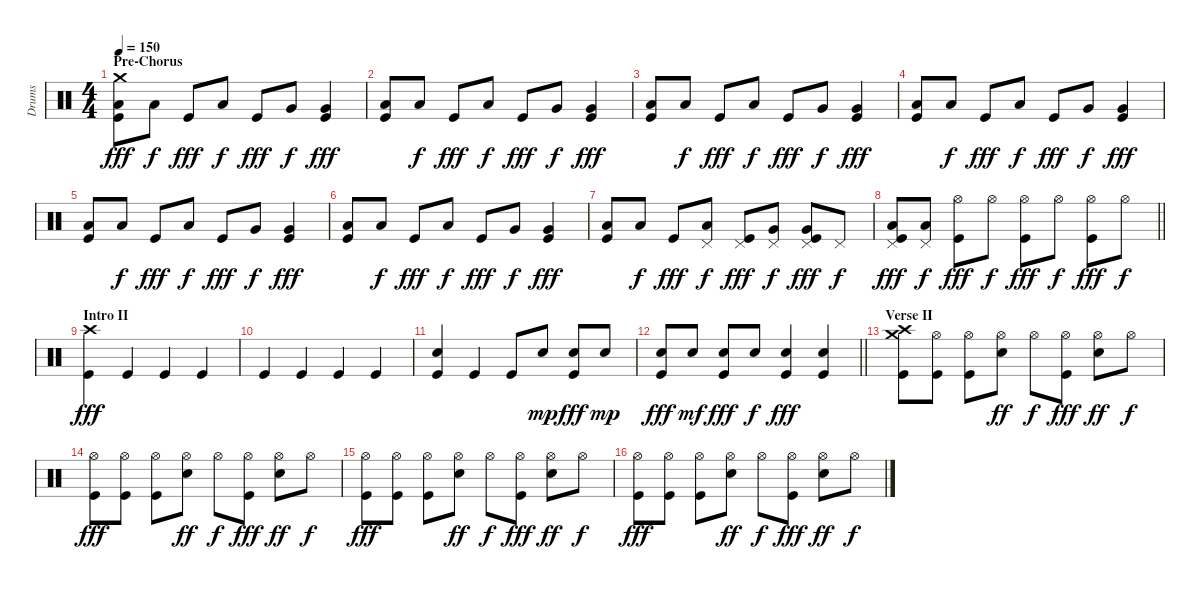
\track ("Drums" "Drums") {instrument percussion}
\staff {score}
\articulation defaults
\ts (4 4)
\section ("" "Pre-Chorus")
\tempo 150
\clef neutral
\ks c
("Crash medium (hit)" "Low Tom (hit)" "Kick (hit)").8{dy fff} "Low Tom (hit)".8{dy f} "Kick (hit)".8{dy fff} "Low Tom (hit)".8{dy f} "Kick (hit)".8{dy fff} "Very Low Tom (hit)".8{dy f} ("Very Low Tom (hit)" "Kick (hit)").4{dy fff} |
("Low Tom (hit)" "Kick (hit)").8 "Low Tom (hit)".8{dy f} "Kick (hit)".8{dy fff} "Low Tom (hit)".8{dy f} "Kick (hit)".8{dy fff} "Very Low Tom (hit)".8{dy f} ("Very Low Tom (hit)" "Kick (hit)").4{dy fff} |
("Low Tom (hit)" "Kick (hit)").8 "Low Tom (hit)".8{dy f} "Kick (hit)".8{dy fff} "Low Tom (hit)".8{dy f} "Kick (hit)".8{dy fff} "Very Low Tom (hit)".8{dy f} ("Very Low Tom (hit)" "Kick (hit)").4{dy fff} |
("Low Tom (hit)" "Kick (hit)").8 "Low Tom (hit)".8{dy f} "Kick (hit)".8{dy fff} "Low Tom (hit)".8{dy f} "Kick (hit)".8{dy fff} "Very Low Tom (hit)".8{dy f} ("Very Low Tom (hit)" "Kick (hit)").4{dy fff} |
("Low Tom (hit)" "Kick (hit)").8 "Low Tom (hit)".8{dy f} "Kick (hit)".8{dy fff} "Low Tom (hit)".8{dy f} "Kick (hit)".8{dy fff} "Very Low Tom (hit)".8{dy f} ("Very Low Tom (hit)" "Kick (hit)").4{dy fff} |
("Low Tom (hit)" "Kick (hit)").8 "Low Tom (hit)".8{dy f} "Kick (hit)".8{dy fff} "Low Tom (hit)".8{dy f} "Kick (hit)".8{dy fff} "Very Low Tom (hit)".8{dy f} ("Very Low Tom (hit)" "Kick (hit)").4{dy fff} |
("Low Tom (hit)" "Kick (hit)").8 "Low Tom (hit)".8{dy f} "Kick (hit)".8{dy fff} ("Pedal Hi-Hat (hit)" "Low Tom (hit)").8{dy f} ("Pedal Hi-Hat (hit)" "Kick (hit)").8{dy fff} ("Pedal Hi-Hat (hit)" "Very Low Tom (hit)").8{dy f} ("Pedal Hi-Hat (hit)" "Very Low Tom (hit)" "Kick (hit)").8{dy fff} "Pedal Hi-Hat (hit)".8{dy f} |
\barLineRight lightlight
("Pedal Hi-Hat (hit)" "Low Tom (hit)" "Kick (hit)").8{dy fff} ("Pedal Hi-Hat (hit)" "Low Tom (hit)").8{dy f} ("Hi-Hat (open)" "Kick (hit)").8{dy fff} "Hi-Hat (open)".8{dy f} ("Hi-Hat (open)" "Kick (hit)").8{dy fff} "Hi-Hat (open)".8{dy f} ("Hi-Hat (open)" "Kick (hit)").8{dy fff} "Hi-Hat (open)".8{dy f} |
\section ("" "Intro II")
("Crash high (hit)" "Kick (hit)").4{dy fff} "Kick (hit)".4 "Kick (hit)".4 "Kick (hit)".4 |
"Kick (hit)".4 "Kick (hit)".4 "Kick (hit)".4 "Kick (hit)".4 |
("Snare (hit) 2" "Kick (hit)").4 "Kick (hit)".4 "Kick (hit)".8 "Snare (hit) 2".8{dy mp} ("Snare (hit) 2" "Kick (hit)").8{dy fff} "Snare (hit) 2".8{dy mp} |
\barLineRight lightlight
("Snare (hit) 2" "Kick (hit)").8{dy fff} "Snare (hit) 2".8{dy mf} ("Snare (hit) 2" "Kick (hit)").8{dy fff} "Snare (hit) 2".8{dy f} ("Snare (hit) 2" "Kick (hit)").4{dy fff} ("Snare (hit) 2" "Kick (hit)").4 |
\section ("" "Verse II")
("Crash high (hit)" "Crash medium (hit)" "Kick (hit)").8 ("Hi-Hat (open)" "Kick (hit)").8 ("Hi-Hat (open)" "Kick (hit)").8 ("Hi-Hat (open)" "Snare (hit) 2").8{dy ff} "Hi-Hat (open)".8{dy f} ("Hi-Hat (open)" "Kick (hit)").8{dy fff} ("Hi-Hat (open)" "Snare (hit) 2").8{dy ff} "Hi-Hat (open)".8{dy f} |
("Hi-Hat (open)" "Kick (hit)").8{dy fff} ("Hi-Hat (open)" "Kick (hit)").8 ("Hi-Hat (open)" "Kick (hit)").8 ("Hi-Hat (open)" "Snare (hit) 2").8{dy ff} "Hi-Hat (open)".8{dy f} ("Hi-Hat (open)" "Kick (hit)").8{dy fff} ("Hi-Hat (open)" "Snare (hit) 2").8{dy ff} "Hi-Hat (open)".8{dy f} |
("Hi-Hat (open)" "Kick (hit)").8{dy fff} ("Hi-Hat (open)" "Kick (hit)").8 ("Hi-Hat (open)" "Kick (hit)").8 ("Hi-Hat (open)" "Snare (hit) 2").8{dy ff} "Hi-Hat (open)".8{dy f} ("Hi-Hat (open)" "Kick (hit)").8{dy fff} ("Hi-Hat (open)" "Snare (hit) 2").8{dy ff} "Hi-Hat (open)".8{dy f} |
("Hi-Hat (open)" "Kick (hit)").8{dy fff} ("Hi-Hat (open)" "Kick (hit)").8 ("Hi-Hat (open)" "Kick (hit)").8 ("Hi-Hat (open)" "Snare (hit) 2").8{dy ff} "Hi-Hat (open)".8{dy f} ("Hi-Hat (open)" "Kick (hit)").8{dy fff} ("Hi-Hat (open)" "Snare (hit) 2").8{dy ff} "Hi-Hat (open)".8{dy f}
